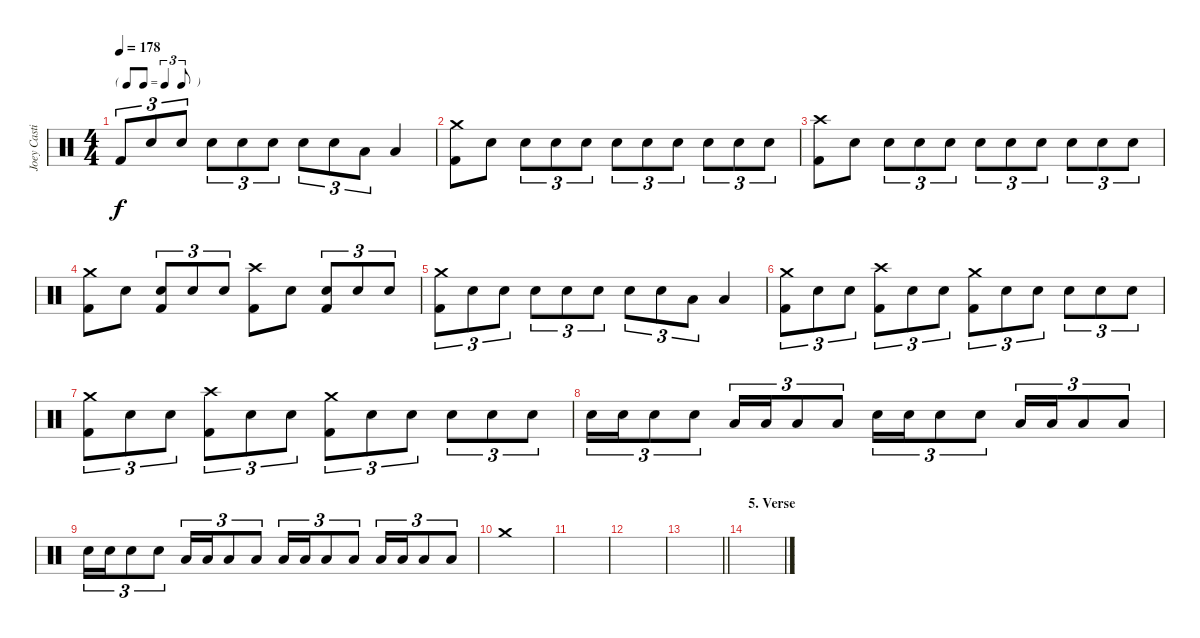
\track ("Joey Castillo" "Joey Casti") {instrument percussion}
\staff {score}
\articulation defaults
\ts (4 4)
\tf triplet8th
\tempo 178
\clef neutral
\ks c "Kick (hit) 2".8{tu (3 2) dy f} "Snare (hit) 2".8{tu (3 2)} "Snare (hit) 2".8{tu (3 2)} "Snare (hit) 2".8{tu (3 2)} "Snare (hit) 2".8{tu (3 2)} "Snare (hit) 2".8{tu (3 2)} "Snare (hit) 2".8{tu (3 2)} "Snare (hit) 2".8{tu (3 2)} "Low Tom (hit)".8{tu (3 2)} "Low Floor Tom (hit)".4
|
("Crash medium (hit)" "Kick (hit) 2").8 "Snare (hit) 2".8 "Snare (hit) 2".8{tu (3 2)} "Snare (hit) 2".8{tu (3 2)} "Snare (hit) 2".8{tu (3 2)} "Snare (hit) 2".8{tu (3 2)} "Snare (hit) 2".8{tu (3 2)} "Snare (hit) 2".8{tu (3 2)} "Snare (hit) 2".8{tu (3 2)} "Snare (hit) 2".8{tu (3 2)} "Snare (hit) 2".8{tu (3 2)} |
("Crash high (hit)" "Kick (hit) 2").8 "Snare (hit) 2".8 "Snare (hit) 2".8{tu (3 2)} "Snare (hit) 2".8{tu (3 2)} "Snare (hit) 2".8{tu (3 2)} "Snare (hit) 2".8{tu (3 2)} "Snare (hit) 2".8{tu (3 2)} "Snare (hit) 2".8{tu (3 2)} "Snare (hit) 2".8{tu (3 2)} "Snare (hit) 2".8{tu (3 2)} "Snare (hit) 2".8{tu (3 2)} |
("Crash medium (hit)" "Kick (hit) 2").8 "Snare (hit) 2".8 ("Snare (hit) 2" "Kick (hit) 2").8{tu (3 2)} "Snare (hit) 2".8{tu (3 2)} "Snare (hit) 2".8{tu (3 2)} ("Crash high (hit)" "Kick (hit) 2").8 "Snare (hit) 2".8 ("Snare (hit) 2" "Kick (hit) 2").8{tu (3 2)} "Snare (hit) 2".8{tu (3 2)} "Snare (hit) 2".8{tu (3 2)} |
("Crash medium (hit)" "Kick (hit) 2").8{tu (3 2)} "Snare (hit) 2".8{tu (3 2)} "Snare (hit) 2".8{tu (3 2)} "Snare (hit) 2".8{tu (3 2)} "Snare (hit) 2".8{tu (3 2)} "Snare (hit) 2".8{tu (3 2)} "Snare (hit) 2".8{tu (3 2)} "Snare (hit) 2".8{tu (3 2)} "Low Tom (hit)".8{tu (3 2)} "Low Floor Tom (hit)".4 |
("Crash medium (hit)" "Kick (hit) 2").8{tu (3 2)} "Snare (hit) 2".8{tu (3 2)} "Snare (hit) 2".8{tu (3 2)} ("Crash high (hit)" "Kick (hit) 2").8{tu (3 2)} "Snare (hit) 2".8{tu (3 2)} "Snare (hit) 2".8{tu (3 2)} ("Crash medium (hit)" "Kick (hit) 2").8{tu (3 2)} "Snare (hit) 2".8{tu (3 2)} "Snare (hit) 2".8{tu (3 2)} "Snare (hit) 2".8{tu (3 2)} "Snare (hit) 2".8{tu (3 2)} "Snare (hit) 2".8{tu (3 2)} |
("Crash medium (hit)" "Kick (hit) 2").8{tu (3 2)} "Snare (hit) 2".8{tu (3 2)} "Snare (hit) 2".8{tu (3 2)} ("Crash high (hit)" "Kick (hit) 2").8{tu (3 2)} "Snare (hit) 2".8{tu (3 2)} "Snare (hit) 2".8{tu (3 2)} ("Crash medium (hit)" "Kick (hit) 2").8{tu (3 2)} "Snare (hit) 2".8{tu (3 2)} "Snare (hit) 2".8{tu (3 2)} "Snare (hit) 2".8{tu (3 2)} "Snare (hit) 2".8{tu (3 2)} "Snare (hit) 2".8{tu (3 2)} |
"Snare (hit) 2".16{tu (3 2)} "Snare (hit) 2".16{tu (3 2)} "Snare (hit) 2".8{tu (3 2)} "Snare (hit) 2".8{tu (3 2)} "Low Tom (hit)".16{tu (3 2)} "Low Tom (hit)".16{tu (3 2)} "Low Tom (hit)".8{tu (3 2)} "Low Tom (hit)".8{tu (3 2)} "Snare (hit) 2".16{tu (3 2)} "Snare (hit) 2".16{tu (3 2)} "Snare (hit) 2".8{tu (3 2)} "Snare (hit) 2".8{tu (3 2)} "Low Tom (hit)".16{tu (3 2)} "Low Tom (hit)".16{tu (3 2)} "Low Tom (hit)".8{tu (3 2)} "Low Tom (hit)".8{tu (3 2)} |
"Snare (hit) 2".16{tu (3 2)} "Snare (hit) 2".16{tu (3 2)} "Snare (hit) 2".8{tu (3 2)} "Snare (hit) 2".8{tu (3 2)} "Low Tom (hit)".16{tu (3 2)} "Low Tom (hit)".16{tu (3 2)} "Low Tom (hit)".8{tu (3 2)} "Low Tom (hit)".8{tu (3 2)} "Low Floor Tom (hit)".16{tu (3 2)} "Low Floor Tom (hit)".16{tu (3 2)} "Low Floor Tom (hit)".8{tu (3 2)} "Low Floor Tom (hit)".8{tu (3 2)} "Low Floor Tom (hit)".16{tu (3 2)} "Low Floor Tom (hit)".16{tu (3 2)} "Low Floor Tom (hit)".8{tu (3 2)} "Low Floor Tom (hit)".8{tu (3 2)} |
"Crash medium (hit)".1 |
|
|
\barLineRight lightlight
|
\section ("" "5. Verse")
